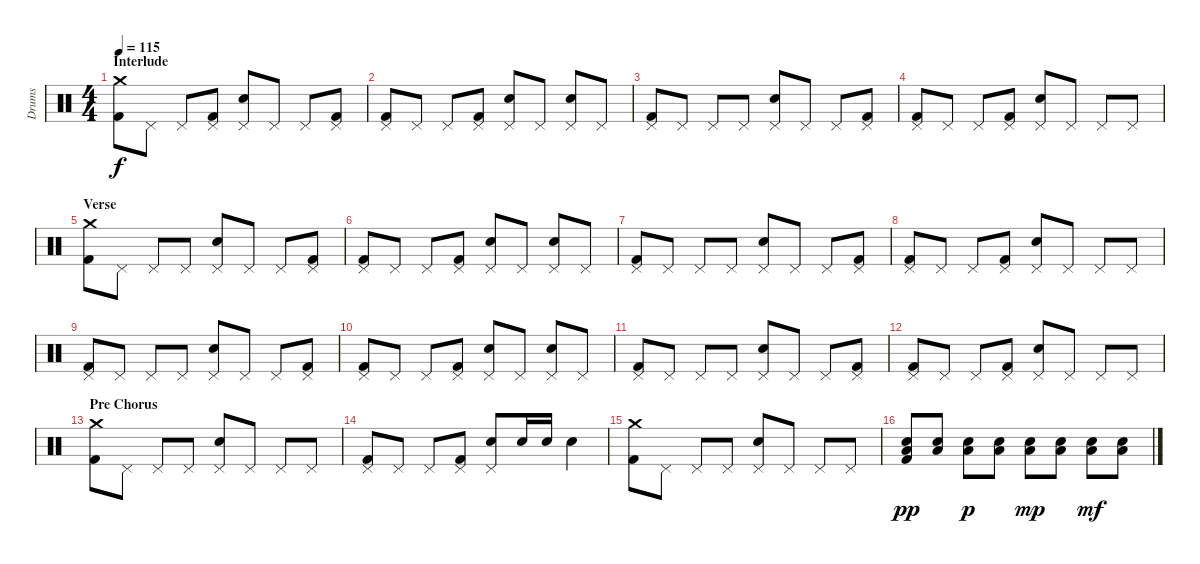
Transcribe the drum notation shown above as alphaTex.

\track ("Drums" "Drums") {instrument percussion}
\staff {score}
\articulation defaults
\ts (4 4)
\section ("" "Interlude")
\tempo 115
\clef neutral
\ks c
("Crash medium (hit)" "Kick (hit) 2").8{dy f} "Pedal Hi-Hat (hit)".8 "Pedal Hi-Hat (hit)".8 ("Pedal Hi-Hat (hit)" "Kick (hit) 2").8 ("Pedal Hi-Hat (hit)" "Electric Snare (hit)").8 "Pedal Hi-Hat (hit)".8 "Pedal Hi-Hat (hit)".8 ("Pedal Hi-Hat (hit)" "Kick (hit) 2").8 |
("Pedal Hi-Hat (hit)" "Kick (hit) 2").8 "Pedal Hi-Hat (hit)".8 "Pedal Hi-Hat (hit)".8 ("Pedal Hi-Hat (hit)" "Kick (hit) 2").8 ("Pedal Hi-Hat (hit)" "Electric Snare (hit)").8 "Pedal Hi-Hat (hit)".8 ("Pedal Hi-Hat (hit)" "Electric Snare (hit)").8 "Pedal Hi-Hat (hit)".8 |
("Pedal Hi-Hat (hit)" "Kick (hit) 2").8 "Pedal Hi-Hat (hit)".8 "Pedal Hi-Hat (hit)".8 "Pedal Hi-Hat (hit)".8 ("Pedal Hi-Hat (hit)" "Electric Snare (hit)").8 "Pedal Hi-Hat (hit)".8 "Pedal Hi-Hat (hit)".8 ("Pedal Hi-Hat (hit)" "Kick (hit) 2").8 |
("Pedal Hi-Hat (hit)" "Kick (hit) 2").8 "Pedal Hi-Hat (hit)".8 "Pedal Hi-Hat (hit)".8 ("Pedal Hi-Hat (hit)" "Kick (hit) 2").8 ("Pedal Hi-Hat (hit)" "Electric Snare (hit)").8 "Pedal Hi-Hat (hit)".8 "Pedal Hi-Hat (hit)".8 "Pedal Hi-Hat (hit)".8 |
\section ("" "Verse")
("Crash medium (hit)" "Kick (hit) 2").8 "Pedal Hi-Hat (hit)".8 "Pedal Hi-Hat (hit)".8 "Pedal Hi-Hat (hit)".8 ("Pedal Hi-Hat (hit)" "Electric Snare (hit)").8 "Pedal Hi-Hat (hit)".8 "Pedal Hi-Hat (hit)".8 ("Pedal Hi-Hat (hit)" "Kick (hit) 2").8 |
("Pedal Hi-Hat (hit)" "Kick (hit) 2").8 "Pedal Hi-Hat (hit)".8 "Pedal Hi-Hat (hit)".8 ("Pedal Hi-Hat (hit)" "Kick (hit) 2").8 ("Pedal Hi-Hat (hit)" "Electric Snare (hit)").8 "Pedal Hi-Hat (hit)".8 ("Pedal Hi-Hat (hit)" "Electric Snare (hit)").8 "Pedal Hi-Hat (hit)".8 |
("Pedal Hi-Hat (hit)" "Kick (hit) 2").8 "Pedal Hi-Hat (hit)".8 "Pedal Hi-Hat (hit)".8 "Pedal Hi-Hat (hit)".8 ("Pedal Hi-Hat (hit)" "Electric Snare (hit)").8 "Pedal Hi-Hat (hit)".8 "Pedal Hi-Hat (hit)".8 ("Pedal Hi-Hat (hit)" "Kick (hit) 2").8 |
("Pedal Hi-Hat (hit)" "Kick (hit) 2").8 "Pedal Hi-Hat (hit)".8 "Pedal Hi-Hat (hit)".8 ("Pedal Hi-Hat (hit)" "Kick (hit) 2").8 ("Pedal Hi-Hat (hit)" "Electric Snare (hit)").8 "Pedal Hi-Hat (hit)".8 "Pedal Hi-Hat (hit)".8 "Pedal Hi-Hat (hit)".8 |
("Pedal Hi-Hat (hit)" "Kick (hit) 2").8 "Pedal Hi-Hat (hit)".8 "Pedal Hi-Hat (hit)".8 "Pedal Hi-Hat (hit)".8 ("Pedal Hi-Hat (hit)" "Electric Snare (hit)").8 "Pedal Hi-Hat (hit)".8 "Pedal Hi-Hat (hit)".8 ("Pedal Hi-Hat (hit)" "Kick (hit) 2").8 |
("Pedal Hi-Hat (hit)" "Kick (hit) 2").8 "Pedal Hi-Hat (hit)".8 "Pedal Hi-Hat (hit)".8 ("Pedal Hi-Hat (hit)" "Kick (hit) 2").8 ("Pedal Hi-Hat (hit)" "Electric Snare (hit)").8 "Pedal Hi-Hat (hit)".8 ("Pedal Hi-Hat (hit)" "Electric Snare (hit)").8 "Pedal Hi-Hat (hit)".8 |
("Pedal Hi-Hat (hit)" "Kick (hit) 2").8 "Pedal Hi-Hat (hit)".8 "Pedal Hi-Hat (hit)".8 "Pedal Hi-Hat (hit)".8 ("Pedal Hi-Hat (hit)" "Electric Snare (hit)").8 "Pedal Hi-Hat (hit)".8 "Pedal Hi-Hat (hit)".8 ("Pedal Hi-Hat (hit)" "Kick (hit) 2").8 |
("Pedal Hi-Hat (hit)" "Kick (hit) 2").8 "Pedal Hi-Hat (hit)".8 "Pedal Hi-Hat (hit)".8 ("Pedal Hi-Hat (hit)" "Kick (hit) 2").8 ("Pedal Hi-Hat (hit)" "Electric Snare (hit)").8 "Pedal Hi-Hat (hit)".8 "Pedal Hi-Hat (hit)".8 "Pedal Hi-Hat (hit)".8 |
\section ("" "Pre Chorus")
("Crash medium (hit)" "Kick (hit) 2").8 "Pedal Hi-Hat (hit)".8 "Pedal Hi-Hat (hit)".8 "Pedal Hi-Hat (hit)".8 ("Pedal Hi-Hat (hit)" "Electric Snare (hit)").8 "Pedal Hi-Hat (hit)".8 "Pedal Hi-Hat (hit)".8 "Pedal Hi-Hat (hit)".8 |
("Pedal Hi-Hat (hit)" "Kick (hit) 2").8 "Pedal Hi-Hat (hit)".8 "Pedal Hi-Hat (hit)".8 ("Pedal Hi-Hat (hit)" "Kick (hit) 2").8 ("Pedal Hi-Hat (hit)" "Electric Snare (hit)").8 "Electric Snare (hit)".16 "Electric Snare (hit)".16 "Electric Snare (hit)".4 |
("Crash medium (hit)" "Kick (hit) 2").8 "Pedal Hi-Hat (hit)".8 "Pedal Hi-Hat (hit)".8 "Pedal Hi-Hat (hit)".8 ("Pedal Hi-Hat (hit)" "Electric Snare (hit)").8 "Pedal Hi-Hat (hit)".8 "Pedal Hi-Hat (hit)".8 "Pedal Hi-Hat (hit)".8 |
("Electric Snare (hit)" "Low Tom (hit)" "Kick (hit) 2").8{dy pp} ("Electric Snare (hit)" "Low Tom (hit)").8 ("Electric Snare (hit)" "Low Tom (hit)").8{dy p} ("Electric Snare (hit)" "Low Tom (hit)").8 ("Electric Snare (hit)" "Low Tom (hit)").8{dy mp} ("Electric Snare (hit)" "Low Tom (hit)").8 ("Electric Snare (hit)" "Low Tom (hit)").8{dy mf} ("Electric Snare (hit)" "Low Tom (hit)").8
